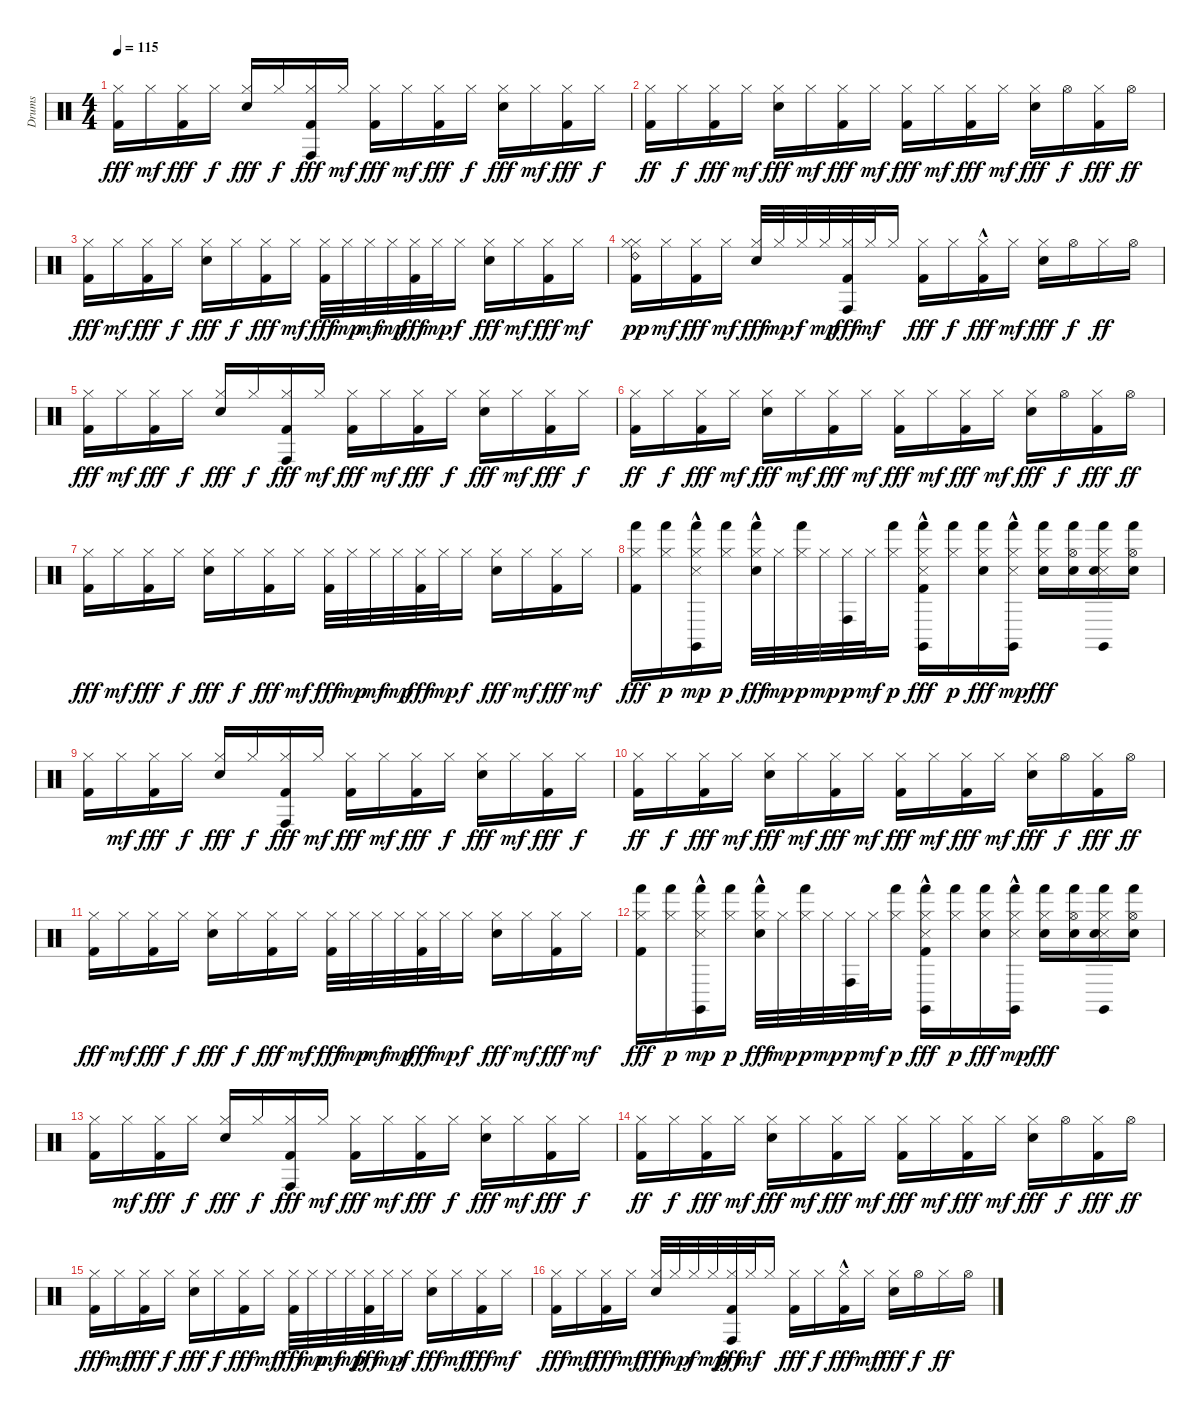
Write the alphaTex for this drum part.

\track ("Drums" "Drums") {instrument percussion}
\staff {score}
\articulation defaults
\ts (4 4)
\tempo 115
\clef neutral
\ks c
("Hi-Hat (closed)" "Kick (hit) 2").16{dy fff} "Hi-Hat (closed)".16{dy mf} ("Hi-Hat (closed)" "Kick (hit) 2").16{dy fff} "Hi-Hat (closed)".16{dy f} ("Hi-Hat (closed)" "Snare (hit) 2").16{dy fff} "Hi-Hat (closed)".16{dy f} ("Hi-Hat (closed)" "Conga high (hit)" "Kick (hit) 2").16{dy fff} "Hi-Hat (closed)".16{dy mf} ("Hi-Hat (closed)" "Kick (hit) 2").16{dy fff} "Hi-Hat (closed)".16{dy mf} ("Hi-Hat (closed)" "Kick (hit) 2").16{dy fff} "Hi-Hat (closed)".16{dy f} ("Hi-Hat (closed)" "Snare (hit) 2").16{dy fff} "Hi-Hat (closed)".16{dy mf} ("Hi-Hat (closed)" "Kick (hit) 2").16{dy fff} "Hi-Hat (closed)".16{dy f} |
("Hi-Hat (closed)" "Kick (hit) 2").16{dy ff} "Hi-Hat (closed)".16{dy f} ("Hi-Hat (closed)" "Kick (hit) 2").16{dy fff} "Hi-Hat (closed)".16{dy mf} ("Hi-Hat (closed)" "Snare (hit) 2").16{dy fff} "Hi-Hat (closed)".16{dy mf} ("Hi-Hat (closed)" "Kick (hit) 2").16{dy fff} "Hi-Hat (closed)".16{dy mf} ("Hi-Hat (closed)" "Kick (hit) 2").16{dy fff} "Hi-Hat (closed)".16{dy mf} ("Hi-Hat (closed)" "Kick (hit) 2").16{dy fff} "Hi-Hat (closed)".16{dy mf} ("Hi-Hat (closed)" "Snare (hit) 2").16{dy fff} "Hi-Hat (open)".16{dy f} ("Hi-Hat (closed)" "Kick (hit) 2").16{dy fff} "Hi-Hat (open)".16{dy ff} |
("Hi-Hat (closed)" "Kick (hit) 2").16{dy fff} "Hi-Hat (closed)".16{dy mf} ("Hi-Hat (closed)" "Kick (hit) 2").16{dy fff} "Hi-Hat (closed)".16{dy f} ("Hi-Hat (closed)" "Snare (hit) 2").16{dy fff} "Hi-Hat (closed)".16{dy f} ("Hi-Hat (closed)" "Kick (hit) 2").16{dy fff} "Hi-Hat (closed)".16{dy mf} ("Hi-Hat (closed)" "Kick (hit) 2").32{dy fff} "Hi-Hat (closed)".32{dy mp} "Hi-Hat (closed)".32{dy mf} "Hi-Hat (closed)".32{dy mp} ("Hi-Hat (closed)" "Kick (hit) 2").32{dy fff} "Hi-Hat (closed)".32{dy mp} "Hi-Hat (closed)".16{dy f} ("Hi-Hat (closed)" "Snare (hit) 2").16{dy fff} "Hi-Hat (closed)".16{dy mf} ("Hi-Hat (closed)" "Kick (hit) 2").16{dy fff} "Hi-Hat (closed)".16{dy mf} |
("Kick (hit) 2" "Hi-Hat (closed)" "Hi-Hat (closed)" "Ride (bell) 2").16{dy pp} "Hi-Hat (closed)".16{dy mf} ("Hi-Hat (closed)" "Kick (hit) 2").16{dy fff} "Hi-Hat (closed)".16{dy mf} ("Hi-Hat (closed)" "Snare (hit) 2").32{dy fff} "Hi-Hat (closed)".32{dy mp} "Hi-Hat (closed)".32{dy f} "Hi-Hat (closed)".32{dy mp} ("Hi-Hat (closed)" "Conga high (hit)" "Kick (hit) 2").32{dy fff} "Hi-Hat (closed)".32{dy mf} "Hi-Hat (closed)".16 ("Hi-Hat (closed)" "Kick (hit) 2").16{dy fff} "Hi-Hat (closed)".16{dy f} ("Hi-Hat (closed)" "Kick (hit) 2"{hac}).16{dy fff} "Hi-Hat (closed)".16{dy mf} ("Hi-Hat (closed)" "Snare (hit) 2").16{dy fff} "Hi-Hat (open)".16{dy f} "Hi-Hat (closed)".16{dy ff} "Hi-Hat (open)".16 |
("Hi-Hat (closed)" "Kick (hit) 2").16{dy fff} "Hi-Hat (closed)".16{dy mf} ("Hi-Hat (closed)" "Kick (hit) 2").16{dy fff} "Hi-Hat (closed)".16{dy f} ("Hi-Hat (closed)" "Snare (hit) 2").16{dy fff} "Hi-Hat (closed)".16{dy f} ("Hi-Hat (closed)" "Conga high (hit)" "Kick (hit) 2").16{dy fff} "Hi-Hat (closed)".16{dy mf} ("Hi-Hat (closed)" "Kick (hit) 2").16{dy fff} "Hi-Hat (closed)".16{dy mf} ("Hi-Hat (closed)" "Kick (hit) 2").16{dy fff} "Hi-Hat (closed)".16{dy f} ("Hi-Hat (closed)" "Snare (hit) 2").16{dy fff} "Hi-Hat (closed)".16{dy mf} ("Hi-Hat (closed)" "Kick (hit) 2").16{dy fff} "Hi-Hat (closed)".16{dy f} |
("Hi-Hat (closed)" "Kick (hit) 2").16{dy ff} "Hi-Hat (closed)".16{dy f} ("Hi-Hat (closed)" "Kick (hit) 2").16{dy fff} "Hi-Hat (closed)".16{dy mf} ("Hi-Hat (closed)" "Snare (hit) 2").16{dy fff} "Hi-Hat (closed)".16{dy mf} ("Hi-Hat (closed)" "Kick (hit) 2").16{dy fff} "Hi-Hat (closed)".16{dy mf} ("Hi-Hat (closed)" "Kick (hit) 2").16{dy fff} "Hi-Hat (closed)".16{dy mf} ("Hi-Hat (closed)" "Kick (hit) 2").16{dy fff} "Hi-Hat (closed)".16{dy mf} ("Hi-Hat (closed)" "Snare (hit) 2").16{dy fff} "Hi-Hat (open)".16{dy f} ("Hi-Hat (closed)" "Kick (hit) 2").16{dy fff} "Hi-Hat (open)".16{dy ff} |
("Hi-Hat (closed)" "Kick (hit) 2").16{dy fff} "Hi-Hat (closed)".16{dy mf} ("Hi-Hat (closed)" "Kick (hit) 2").16{dy fff} "Hi-Hat (closed)".16{dy f} ("Hi-Hat (closed)" "Snare (hit) 2").16{dy fff} "Hi-Hat (closed)".16{dy f} ("Hi-Hat (closed)" "Kick (hit) 2").16{dy fff} "Hi-Hat (closed)".16{dy mf} ("Hi-Hat (closed)" "Kick (hit) 2").32{dy fff} "Hi-Hat (closed)".32{dy mp} "Hi-Hat (closed)".32{dy mf} "Hi-Hat (closed)".32{dy mp} ("Hi-Hat (closed)" "Kick (hit) 2").32{dy fff} "Hi-Hat (closed)".32{dy mp} "Hi-Hat (closed)".16{dy f} ("Hi-Hat (closed)" "Snare (hit) 2").16{dy fff} "Hi-Hat (closed)".16{dy mf} ("Hi-Hat (closed)" "Kick (hit) 2").16{dy fff} "Hi-Hat (closed)".16{dy mf} |
("Hi-Hat (closed)" "Hand (hit)" "Kick (hit) 2").16{dy fff} ("Hi-Hat (closed)" "Hand (hit)").16{dy p} ("Hi-Hat (closed)" "Hand (hit)" "Claves (hit)"{hac} "Snare (side stick) 3"{hac}).16{dy mp} ("Hi-Hat (closed)" "Hand (hit)").16{dy p} ("Hi-Hat (closed)" "Hand (hit)" "Snare (hit) 2"{hac}).32{dy fff} "Hi-Hat (closed)".32{dy mp} ("Hi-Hat (closed)" "Hand (hit)").32{dy p} "Hi-Hat (closed)".32{dy mp} ("Hi-Hat (closed)" "Conga high (hit)").32{dy p} "Hi-Hat (closed)".32{dy mf} ("Hi-Hat (closed)" "Hand (hit)").16{dy p} ("Hi-Hat (closed)" "Hand (hit)" "Claves (hit)"{hac} "Snare (side stick) 3"{hac} "Kick (hit) 2").16{dy fff} ("Hi-Hat (closed)" "Hand (hit)").16{dy p} ("Hi-Hat (closed)" "Hand (hit)" "Snare (hit) 2").16{dy fff} ("Hi-Hat (closed)" "Hand (hit)" "Claves (hit)"{hac} "Snare (side stick) 3"{hac}).16{dy mp} ("Hi-Hat (closed)" "Hand (hit)" "Snare (hit) 2").16{dy fff} ("Hi-Hat (open)" "Hand (hit)" "Snare (hit) 2").16 ("Hi-Hat (closed)" "Hand (hit)" "Claves (hit)" "Snare (side stick) 3" "Snare (hit) 2").16 ("Hi-Hat (open)" "Hand (hit)" "Snare (hit) 2").16 |
("Hi-Hat (closed)" "Kick (hit) 2").16 "Hi-Hat (closed)".16{dy mf} ("Hi-Hat (closed)" "Kick (hit) 2").16{dy fff} "Hi-Hat (closed)".16{dy f} ("Hi-Hat (closed)" "Snare (hit) 2").16{dy fff} "Hi-Hat (closed)".16{dy f} ("Hi-Hat (closed)" "Conga high (hit)" "Kick (hit) 2").16{dy fff} "Hi-Hat (closed)".16{dy mf} ("Hi-Hat (closed)" "Kick (hit) 2").16{dy fff} "Hi-Hat (closed)".16{dy mf} ("Hi-Hat (closed)" "Kick (hit) 2").16{dy fff} "Hi-Hat (closed)".16{dy f} ("Hi-Hat (closed)" "Snare (hit) 2").16{dy fff} "Hi-Hat (closed)".16{dy mf} ("Hi-Hat (closed)" "Kick (hit) 2").16{dy fff} "Hi-Hat (closed)".16{dy f} |
("Hi-Hat (closed)" "Kick (hit) 2").16{dy ff} "Hi-Hat (closed)".16{dy f} ("Hi-Hat (closed)" "Kick (hit) 2").16{dy fff} "Hi-Hat (closed)".16{dy mf} ("Hi-Hat (closed)" "Snare (hit) 2").16{dy fff} "Hi-Hat (closed)".16{dy mf} ("Hi-Hat (closed)" "Kick (hit) 2").16{dy fff} "Hi-Hat (closed)".16{dy mf} ("Hi-Hat (closed)" "Kick (hit) 2").16{dy fff} "Hi-Hat (closed)".16{dy mf} ("Hi-Hat (closed)" "Kick (hit) 2").16{dy fff} "Hi-Hat (closed)".16{dy mf} ("Hi-Hat (closed)" "Snare (hit) 2").16{dy fff} "Hi-Hat (open)".16{dy f} ("Hi-Hat (closed)" "Kick (hit) 2").16{dy fff} "Hi-Hat (open)".16{dy ff} |
("Hi-Hat (closed)" "Kick (hit) 2").16{dy fff} "Hi-Hat (closed)".16{dy mf} ("Hi-Hat (closed)" "Kick (hit) 2").16{dy fff} "Hi-Hat (closed)".16{dy f} ("Hi-Hat (closed)" "Snare (hit) 2").16{dy fff} "Hi-Hat (closed)".16{dy f} ("Hi-Hat (closed)" "Kick (hit) 2").16{dy fff} "Hi-Hat (closed)".16{dy mf} ("Hi-Hat (closed)" "Kick (hit) 2").32{dy fff} "Hi-Hat (closed)".32{dy mp} "Hi-Hat (closed)".32{dy mf} "Hi-Hat (closed)".32{dy mp} ("Hi-Hat (closed)" "Kick (hit) 2").32{dy fff} "Hi-Hat (closed)".32{dy mp} "Hi-Hat (closed)".16{dy f} ("Hi-Hat (closed)" "Snare (hit) 2").16{dy fff} "Hi-Hat (closed)".16{dy mf} ("Hi-Hat (closed)" "Kick (hit) 2").16{dy fff} "Hi-Hat (closed)".16{dy mf} |
("Hi-Hat (closed)" "Hand (hit)" "Kick (hit) 2").16{dy fff} ("Hi-Hat (closed)" "Hand (hit)").16{dy p} ("Hi-Hat (closed)" "Hand (hit)" "Claves (hit)"{hac} "Snare (side stick) 3"{hac}).16{dy mp} ("Hi-Hat (closed)" "Hand (hit)").16{dy p} ("Hi-Hat (closed)" "Hand (hit)" "Snare (hit) 2"{hac}).32{dy fff} "Hi-Hat (closed)".32{dy mp} ("Hi-Hat (closed)" "Hand (hit)").32{dy p} "Hi-Hat (closed)".32{dy mp} ("Hi-Hat (closed)" "Conga high (hit)").32{dy p} "Hi-Hat (closed)".32{dy mf} ("Hi-Hat (closed)" "Hand (hit)").16{dy p} ("Hi-Hat (closed)" "Hand (hit)" "Claves (hit)"{hac} "Snare (side stick) 3"{hac} "Kick (hit) 2").16{dy fff} ("Hi-Hat (closed)" "Hand (hit)").16{dy p} ("Hi-Hat (closed)" "Hand (hit)" "Snare (hit) 2").16{dy fff} ("Hi-Hat (closed)" "Hand (hit)" "Claves (hit)"{hac} "Snare (side stick) 3"{hac}).16{dy mp} ("Hi-Hat (closed)" "Hand (hit)" "Snare (hit) 2").16{dy fff} ("Hi-Hat (open)" "Hand (hit)" "Snare (hit) 2").16 ("Hi-Hat (closed)" "Hand (hit)" "Claves (hit)" "Snare (side stick) 3" "Snare (hit) 2").16 ("Hi-Hat (open)" "Hand (hit)" "Snare (hit) 2").16 |
("Hi-Hat (closed)" "Kick (hit) 2").16 "Hi-Hat (closed)".16{dy mf} ("Hi-Hat (closed)" "Kick (hit) 2").16{dy fff} "Hi-Hat (closed)".16{dy f} ("Hi-Hat (closed)" "Snare (hit) 2").16{dy fff} "Hi-Hat (closed)".16{dy f} ("Hi-Hat (closed)" "Conga high (hit)" "Kick (hit) 2").16{dy fff} "Hi-Hat (closed)".16{dy mf} ("Hi-Hat (closed)" "Kick (hit) 2").16{dy fff} "Hi-Hat (closed)".16{dy mf} ("Hi-Hat (closed)" "Kick (hit) 2").16{dy fff} "Hi-Hat (closed)".16{dy f} ("Hi-Hat (closed)" "Snare (hit) 2").16{dy fff} "Hi-Hat (closed)".16{dy mf} ("Hi-Hat (closed)" "Kick (hit) 2").16{dy fff} "Hi-Hat (closed)".16{dy f} |
("Hi-Hat (closed)" "Kick (hit) 2").16{dy ff} "Hi-Hat (closed)".16{dy f} ("Hi-Hat (closed)" "Kick (hit) 2").16{dy fff} "Hi-Hat (closed)".16{dy mf} ("Hi-Hat (closed)" "Snare (hit) 2").16{dy fff} "Hi-Hat (closed)".16{dy mf} ("Hi-Hat (closed)" "Kick (hit) 2").16{dy fff} "Hi-Hat (closed)".16{dy mf} ("Hi-Hat (closed)" "Kick (hit) 2").16{dy fff} "Hi-Hat (closed)".16{dy mf} ("Hi-Hat (closed)" "Kick (hit) 2").16{dy fff} "Hi-Hat (closed)".16{dy mf} ("Hi-Hat (closed)" "Snare (hit) 2").16{dy fff} "Hi-Hat (open)".16{dy f} ("Hi-Hat (closed)" "Kick (hit) 2").16{dy fff} "Hi-Hat (open)".16{dy ff} |
("Hi-Hat (closed)" "Kick (hit) 2").16{dy fff} "Hi-Hat (closed)".16{dy mf} ("Hi-Hat (closed)" "Kick (hit) 2").16{dy fff} "Hi-Hat (closed)".16{dy f} ("Hi-Hat (closed)" "Snare (hit) 2").16{dy fff} "Hi-Hat (closed)".16{dy f} ("Hi-Hat (closed)" "Kick (hit) 2").16{dy fff} "Hi-Hat (closed)".16{dy mf} ("Hi-Hat (closed)" "Kick (hit) 2").32{dy fff} "Hi-Hat (closed)".32{dy mp} "Hi-Hat (closed)".32{dy mf} "Hi-Hat (closed)".32{dy mp} ("Hi-Hat (closed)" "Kick (hit) 2").32{dy fff} "Hi-Hat (closed)".32{dy mp} "Hi-Hat (closed)".16{dy f} ("Hi-Hat (closed)" "Snare (hit) 2").16{dy fff} "Hi-Hat (closed)".16{dy mf} ("Hi-Hat (closed)" "Kick (hit) 2").16{dy fff} "Hi-Hat (closed)".16{dy mf} |
("Hi-Hat (closed)" "Kick (hit) 2").16{dy fff} "Hi-Hat (closed)".16{dy mf} ("Hi-Hat (closed)" "Kick (hit) 2").16{dy fff} "Hi-Hat (closed)".16{dy mf} ("Hi-Hat (closed)" "Snare (hit) 2").32{dy fff} "Hi-Hat (closed)".32{dy mp} "Hi-Hat (closed)".32{dy f} "Hi-Hat (closed)".32{dy mp} ("Hi-Hat (closed)" "Conga high (hit)" "Kick (hit) 2").32{dy fff} "Hi-Hat (closed)".32{dy mf} "Hi-Hat (closed)".16 ("Hi-Hat (closed)" "Kick (hit) 2").16{dy fff} "Hi-Hat (closed)".16{dy f} ("Hi-Hat (closed)" "Kick (hit) 2"{hac}).16{dy fff} "Hi-Hat (closed)".16{dy mf} ("Hi-Hat (closed)" "Snare (hit) 2").16{dy fff} "Hi-Hat (open)".16{dy f} "Hi-Hat (closed)".16{dy ff} "Hi-Hat (open)".16
